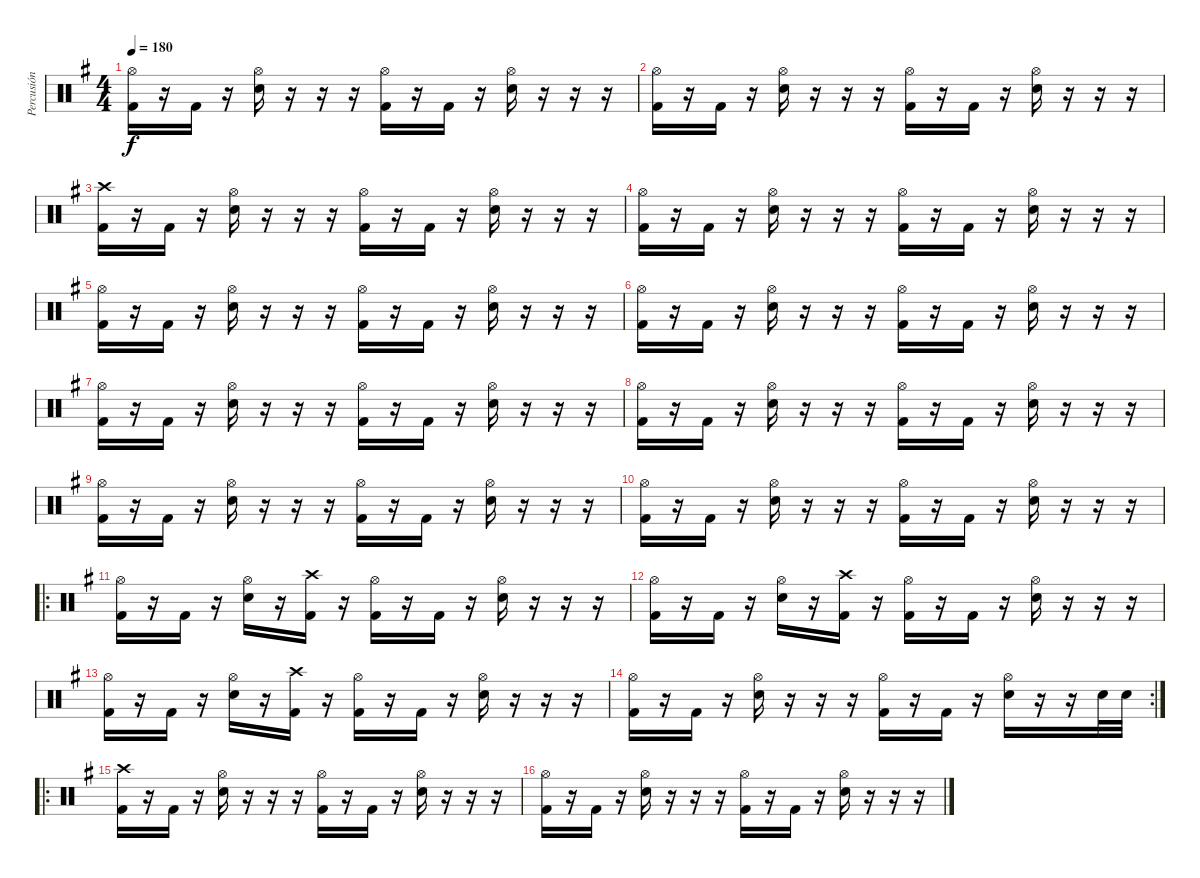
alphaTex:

\track ("Percusión" "Percusión") {instrument percussion}
\staff {score}
\articulation defaults
\ts (4 4)
\tempo 180
\clef neutral
\ks g
("Hi-Hat (open)" "Kick (hit) 2").16{dy f} r.16 "Kick (hit) 2".16 r.16 ("Hi-Hat (open)" "Snare (hit) 2").16 r.16 r.16 r.16 ("Hi-Hat (open)" "Kick (hit) 2").16 r.16 "Kick (hit) 2".16 r.16 ("Hi-Hat (open)" "Snare (hit) 2").16 r.16 r.16 r.16 |
("Hi-Hat (open)" "Kick (hit) 2").16 r.16 "Kick (hit) 2".16 r.16 ("Hi-Hat (open)" "Snare (hit) 2").16 r.16 r.16 r.16 ("Hi-Hat (open)" "Kick (hit) 2").16 r.16 "Kick (hit) 2".16 r.16 ("Hi-Hat (open)" "Snare (hit) 2").16 r.16 r.16 r.16 |
("Crash high (hit)" "Kick (hit) 2").16 r.16 "Kick (hit) 2".16 r.16 ("Hi-Hat (open)" "Snare (hit) 2").16 r.16 r.16 r.16 ("Hi-Hat (open)" "Kick (hit) 2").16 r.16 "Kick (hit) 2".16 r.16 ("Hi-Hat (open)" "Snare (hit) 2").16 r.16 r.16 r.16 |
("Hi-Hat (open)" "Kick (hit) 2").16 r.16 "Kick (hit) 2".16 r.16 ("Hi-Hat (open)" "Snare (hit) 2").16 r.16 r.16 r.16 ("Hi-Hat (open)" "Kick (hit) 2").16 r.16 "Kick (hit) 2".16 r.16 ("Hi-Hat (open)" "Snare (hit) 2").16 r.16 r.16 r.16 |
("Hi-Hat (open)" "Kick (hit) 2").16 r.16 "Kick (hit) 2".16 r.16 ("Hi-Hat (open)" "Snare (hit) 2").16 r.16 r.16 r.16 ("Hi-Hat (open)" "Kick (hit) 2").16 r.16 "Kick (hit) 2".16 r.16 ("Hi-Hat (open)" "Snare (hit) 2").16 r.16 r.16 r.16 |
("Hi-Hat (open)" "Kick (hit) 2").16 r.16 "Kick (hit) 2".16 r.16 ("Hi-Hat (open)" "Snare (hit) 2").16 r.16 r.16 r.16 ("Hi-Hat (open)" "Kick (hit) 2").16 r.16 "Kick (hit) 2".16 r.16 ("Hi-Hat (open)" "Snare (hit) 2").16 r.16 r.16 r.16 |
("Hi-Hat (open)" "Kick (hit) 2").16 r.16 "Kick (hit) 2".16 r.16 ("Hi-Hat (open)" "Snare (hit) 2").16 r.16 r.16 r.16 ("Hi-Hat (open)" "Kick (hit) 2").16 r.16 "Kick (hit) 2".16 r.16 ("Hi-Hat (open)" "Snare (hit) 2").16 r.16 r.16 r.16 |
("Hi-Hat (open)" "Kick (hit) 2").16 r.16 "Kick (hit) 2".16 r.16 ("Hi-Hat (open)" "Snare (hit) 2").16 r.16 r.16 r.16 ("Hi-Hat (open)" "Kick (hit) 2").16 r.16 "Kick (hit) 2".16 r.16 ("Hi-Hat (open)" "Snare (hit) 2").16 r.16 r.16 r.16 |
("Hi-Hat (open)" "Kick (hit) 2").16 r.16 "Kick (hit) 2".16 r.16 ("Hi-Hat (open)" "Snare (hit) 2").16 r.16 r.16 r.16 ("Hi-Hat (open)" "Kick (hit) 2").16 r.16 "Kick (hit) 2".16 r.16 ("Hi-Hat (open)" "Snare (hit) 2").16 r.16 r.16 r.16 |
("Hi-Hat (open)" "Kick (hit) 2").16 r.16 "Kick (hit) 2".16 r.16 ("Hi-Hat (open)" "Snare (hit) 2").16 r.16 r.16 r.16 ("Hi-Hat (open)" "Kick (hit) 2").16 r.16 "Kick (hit) 2".16 r.16 ("Hi-Hat (open)" "Snare (hit) 2").16 r.16 r.16 r.16 |
\ro
("Hi-Hat (open)" "Kick (hit) 2").16 r.16 "Kick (hit) 2".16 r.16 ("Hi-Hat (open)" "Snare (hit) 2").16 r.16 ("Crash high (hit)" "Kick (hit) 2").16 r.16 ("Hi-Hat (open)" "Kick (hit) 2").16 r.16 "Kick (hit) 2".16 r.16 ("Hi-Hat (open)" "Snare (hit) 2").16 r.16 r.16 r.16 |
("Hi-Hat (open)" "Kick (hit) 2").16 r.16 "Kick (hit) 2".16 r.16 ("Hi-Hat (open)" "Snare (hit) 2").16 r.16 ("Crash high (hit)" "Kick (hit) 2").16 r.16 ("Hi-Hat (open)" "Kick (hit) 2").16 r.16 "Kick (hit) 2".16 r.16 ("Hi-Hat (open)" "Snare (hit) 2").16 r.16 r.16 r.16 |
("Hi-Hat (open)" "Kick (hit) 2").16 r.16 "Kick (hit) 2".16 r.16 ("Hi-Hat (open)" "Snare (hit) 2").16 r.16 ("Crash high (hit)" "Kick (hit) 2").16 r.16 ("Hi-Hat (open)" "Kick (hit) 2").16 r.16 "Kick (hit) 2".16 r.16 ("Hi-Hat (open)" "Snare (hit) 2").16 r.16 r.16 r.16 |
\rc 2
("Hi-Hat (open)" "Kick (hit) 2").16 r.16 "Kick (hit) 2".16 r.16 ("Hi-Hat (open)" "Snare (hit) 2").16 r.16 r.16 r.16 ("Hi-Hat (open)" "Kick (hit) 2").16 r.16 "Kick (hit) 2".16 r.16 ("Hi-Hat (open)" "Snare (hit) 2").16 r.16 r.16 "Snare (hit) 2".32 "Snare (hit) 2".32 |
\ro
("Crash high (hit)" "Kick (hit) 2").16 r.16 "Kick (hit) 2".16 r.16 ("Hi-Hat (open)" "Snare (hit) 2").16 r.16 r.16 r.16 ("Hi-Hat (open)" "Kick (hit) 2").16 r.16 "Kick (hit) 2".16 r.16 ("Hi-Hat (open)" "Snare (hit) 2").16 r.16 r.16 r.16 |
("Hi-Hat (open)" "Kick (hit) 2").16 r.16 "Kick (hit) 2".16 r.16 ("Hi-Hat (open)" "Snare (hit) 2").16 r.16 r.16 r.16 ("Hi-Hat (open)" "Kick (hit) 2").16 r.16 "Kick (hit) 2".16 r.16 ("Hi-Hat (open)" "Snare (hit) 2").16 r.16 r.16 r.16
